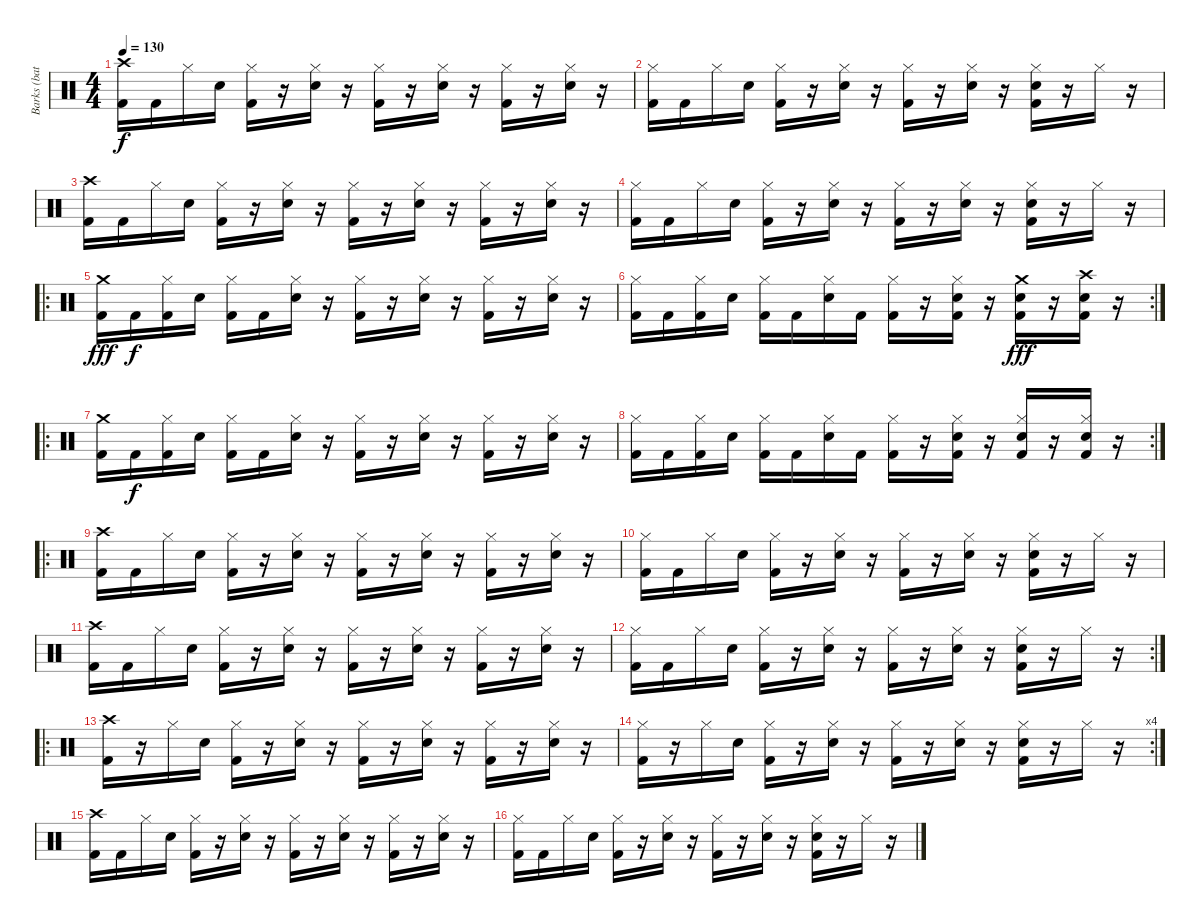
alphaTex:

\track ("Barks (batterie)" "Barks (bat") {instrument percussion}
\staff {score}
\articulation defaults
\ts (4 4)
\tempo 130
\clef neutral
\ks c
("Crash high (hit)" "Kick (hit) 2").16{dy f} "Kick (hit) 2".16 "Hi-Hat (closed)".16 "Electric Snare (hit)".16 ("Hi-Hat (closed)" "Kick (hit) 2").16 r.16 ("Hi-Hat (closed)" "Electric Snare (hit)").16 r.16 ("Hi-Hat (closed)" "Kick (hit) 2").16 r.16 ("Hi-Hat (closed)" "Electric Snare (hit)").16 r.16 ("Hi-Hat (closed)" "Kick (hit) 2").16 r.16 ("Hi-Hat (closed)" "Electric Snare (hit)").16 r.16 |
("Hi-Hat (closed)" "Kick (hit) 2").16 "Kick (hit) 2".16 "Hi-Hat (closed)".16 "Electric Snare (hit)".16 ("Hi-Hat (closed)" "Kick (hit) 2").16 r.16 ("Hi-Hat (closed)" "Electric Snare (hit)").16 r.16 ("Hi-Hat (closed)" "Kick (hit) 2").16 r.16 ("Hi-Hat (closed)" "Electric Snare (hit)").16 r.16 ("Hi-Hat (closed)" "Electric Snare (hit)" "Kick (hit) 2").16 r.16 "Hi-Hat (closed)".16 r.16 |
("Crash high (hit)" "Kick (hit) 2").16 "Kick (hit) 2".16 "Hi-Hat (closed)".16 "Electric Snare (hit)".16 ("Hi-Hat (closed)" "Kick (hit) 2").16 r.16 ("Hi-Hat (closed)" "Electric Snare (hit)").16 r.16 ("Hi-Hat (closed)" "Kick (hit) 2").16 r.16 ("Hi-Hat (closed)" "Electric Snare (hit)").16 r.16 ("Hi-Hat (closed)" "Kick (hit) 2").16 r.16 ("Hi-Hat (closed)" "Electric Snare (hit)").16 r.16 |
("Hi-Hat (closed)" "Kick (hit) 2").16 "Kick (hit) 2".16 "Hi-Hat (closed)".16 "Electric Snare (hit)".16 ("Hi-Hat (closed)" "Kick (hit) 2").16 r.16 ("Hi-Hat (closed)" "Electric Snare (hit)").16 r.16 ("Hi-Hat (closed)" "Kick (hit) 2").16 r.16 ("Hi-Hat (closed)" "Electric Snare (hit)").16 r.16 ("Hi-Hat (closed)" "Electric Snare (hit)" "Kick (hit) 2").16 r.16 "Hi-Hat (closed)".16 r.16 |
\ro
("Crash medium (hit)" "Kick (hit) 2").16{dy fff} "Kick (hit) 2".16{dy f} ("Hi-Hat (closed)" "Kick (hit) 2").16 "Electric Snare (hit)".16 ("Hi-Hat (closed)" "Kick (hit) 2").16 "Kick (hit) 2".16 ("Hi-Hat (closed)" "Electric Snare (hit)").16 r.16 ("Hi-Hat (closed)" "Kick (hit) 2").16 r.16 ("Hi-Hat (closed)" "Electric Snare (hit)").16 r.16 ("Hi-Hat (closed)" "Kick (hit) 2").16 r.16 ("Hi-Hat (closed)" "Electric Snare (hit)").16 r.16 |
\rc 2
("Hi-Hat (closed)" "Kick (hit) 2").16 "Kick (hit) 2".16 ("Hi-Hat (closed)" "Kick (hit) 2").16 "Electric Snare (hit)".16 ("Hi-Hat (closed)" "Kick (hit) 2").16 "Kick (hit) 2".16 ("Hi-Hat (closed)" "Electric Snare (hit)").16 "Kick (hit) 2".16 ("Hi-Hat (closed)" "Kick (hit) 2").16 r.16 ("Hi-Hat (closed)" "Electric Snare (hit)" "Kick (hit) 2").16 r.16 ("Crash medium (hit)" "Electric Snare (hit)" "Kick (hit) 2").16{dy fff} r.16 ("Crash high (hit)" "Electric Snare (hit)" "Kick (hit) 2").16 r.16 |
\ro
("Crash medium (hit)" "Kick (hit) 2").16 "Kick (hit) 2".16{dy f} ("Hi-Hat (closed)" "Kick (hit) 2").16 "Electric Snare (hit)".16 ("Hi-Hat (closed)" "Kick (hit) 2").16 "Kick (hit) 2".16 ("Hi-Hat (closed)" "Electric Snare (hit)").16 r.16 ("Hi-Hat (closed)" "Kick (hit) 2").16 r.16 ("Hi-Hat (closed)" "Electric Snare (hit)").16 r.16 ("Hi-Hat (closed)" "Kick (hit) 2").16 r.16 ("Hi-Hat (closed)" "Electric Snare (hit)").16 r.16 |
\rc 2
("Hi-Hat (closed)" "Kick (hit) 2").16 "Kick (hit) 2".16 ("Hi-Hat (closed)" "Kick (hit) 2").16 "Electric Snare (hit)".16 ("Hi-Hat (closed)" "Kick (hit) 2").16 "Kick (hit) 2".16 ("Hi-Hat (closed)" "Electric Snare (hit)").16 "Kick (hit) 2".16 ("Hi-Hat (closed)" "Kick (hit) 2").16 r.16 ("Hi-Hat (closed)" "Electric Snare (hit)" "Kick (hit) 2").16 r.16 ("Hi-Hat (closed)" "Electric Snare (hit)" "Kick (hit) 2").16 r.16 ("Hi-Hat (closed)" "Electric Snare (hit)" "Kick (hit) 2").16 r.16 |
\ro
("Crash high (hit)" "Kick (hit) 2").16 "Kick (hit) 2".16 "Hi-Hat (closed)".16 "Electric Snare (hit)".16 ("Hi-Hat (closed)" "Kick (hit) 2").16 r.16 ("Hi-Hat (closed)" "Electric Snare (hit)").16 r.16 ("Hi-Hat (closed)" "Kick (hit) 2").16 r.16 ("Hi-Hat (closed)" "Electric Snare (hit)").16 r.16 ("Hi-Hat (closed)" "Kick (hit) 2").16 r.16 ("Hi-Hat (closed)" "Electric Snare (hit)").16 r.16 |
("Hi-Hat (closed)" "Kick (hit) 2").16 "Kick (hit) 2".16 "Hi-Hat (closed)".16 "Electric Snare (hit)".16 ("Hi-Hat (closed)" "Kick (hit) 2").16 r.16 ("Hi-Hat (closed)" "Electric Snare (hit)").16 r.16 ("Hi-Hat (closed)" "Kick (hit) 2").16 r.16 ("Hi-Hat (closed)" "Electric Snare (hit)").16 r.16 ("Hi-Hat (closed)" "Electric Snare (hit)" "Kick (hit) 2").16 r.16 "Hi-Hat (closed)".16 r.16 |
("Crash high (hit)" "Kick (hit) 2").16 "Kick (hit) 2".16 "Hi-Hat (closed)".16 "Electric Snare (hit)".16 ("Hi-Hat (closed)" "Kick (hit) 2").16 r.16 ("Hi-Hat (closed)" "Electric Snare (hit)").16 r.16 ("Hi-Hat (closed)" "Kick (hit) 2").16 r.16 ("Hi-Hat (closed)" "Electric Snare (hit)").16 r.16 ("Hi-Hat (closed)" "Kick (hit) 2").16 r.16 ("Hi-Hat (closed)" "Electric Snare (hit)").16 r.16 |
\rc 2
("Hi-Hat (closed)" "Kick (hit) 2").16 "Kick (hit) 2".16 "Hi-Hat (closed)".16 "Electric Snare (hit)".16 ("Hi-Hat (closed)" "Kick (hit) 2").16 r.16 ("Hi-Hat (closed)" "Electric Snare (hit)").16 r.16 ("Hi-Hat (closed)" "Kick (hit) 2").16 r.16 ("Hi-Hat (closed)" "Electric Snare (hit)").16 r.16 ("Hi-Hat (closed)" "Electric Snare (hit)" "Kick (hit) 2").16 r.16 "Hi-Hat (closed)".16 r.16 |
\ro
("Crash high (hit)" "Kick (hit) 2").16 r.16 "Hi-Hat (closed)".16 "Electric Snare (hit)".16 ("Hi-Hat (closed)" "Kick (hit) 2").16 r.16 ("Hi-Hat (closed)" "Electric Snare (hit)").16 r.16 ("Hi-Hat (closed)" "Kick (hit) 2").16 r.16 ("Hi-Hat (closed)" "Electric Snare (hit)").16 r.16 ("Hi-Hat (closed)" "Kick (hit) 2").16 r.16 ("Hi-Hat (closed)" "Electric Snare (hit)").16 r.16 |
\rc 4
("Hi-Hat (closed)" "Kick (hit) 2").16 r.16 "Hi-Hat (closed)".16 "Electric Snare (hit)".16 ("Hi-Hat (closed)" "Kick (hit) 2").16 r.16 ("Hi-Hat (closed)" "Electric Snare (hit)").16 r.16 ("Hi-Hat (closed)" "Kick (hit) 2").16 r.16 ("Hi-Hat (closed)" "Electric Snare (hit)").16 r.16 ("Hi-Hat (closed)" "Electric Snare (hit)" "Kick (hit) 2").16 r.16 "Hi-Hat (closed)".16 r.16 |
("Crash high (hit)" "Kick (hit) 2").16 "Kick (hit) 2".16 "Hi-Hat (closed)".16 "Electric Snare (hit)".16 ("Hi-Hat (closed)" "Kick (hit) 2").16 r.16 ("Hi-Hat (closed)" "Electric Snare (hit)").16 r.16 ("Hi-Hat (closed)" "Kick (hit) 2").16 r.16 ("Hi-Hat (closed)" "Electric Snare (hit)").16 r.16 ("Hi-Hat (closed)" "Kick (hit) 2").16 r.16 ("Hi-Hat (closed)" "Electric Snare (hit)").16 r.16 |
("Hi-Hat (closed)" "Kick (hit) 2").16 "Kick (hit) 2".16 "Hi-Hat (closed)".16 "Electric Snare (hit)".16 ("Hi-Hat (closed)" "Kick (hit) 2").16 r.16 ("Hi-Hat (closed)" "Electric Snare (hit)").16 r.16 ("Hi-Hat (closed)" "Kick (hit) 2").16 r.16 ("Hi-Hat (closed)" "Electric Snare (hit)").16 r.16 ("Hi-Hat (closed)" "Electric Snare (hit)" "Kick (hit) 2").16 r.16 "Hi-Hat (closed)".16 r.16
